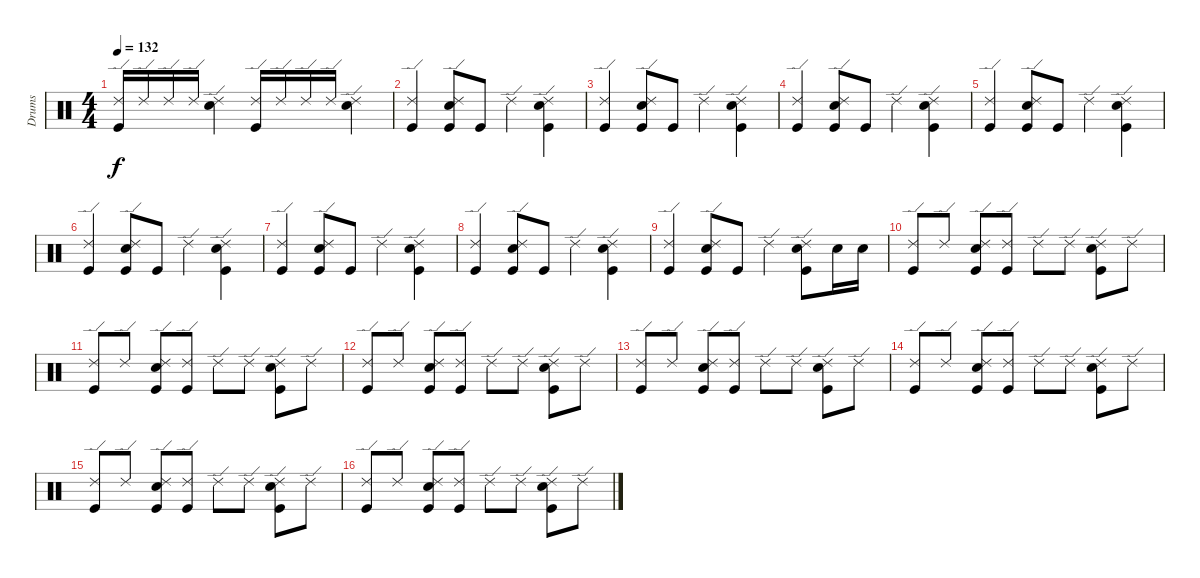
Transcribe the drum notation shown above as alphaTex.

\track ("Drums" "Drums") {instrument percussion}
\staff {score}
\articulation defaults
\ts (4 4)
\tempo 132
\clef neutral
\ks c
("Ride (edge) 2" "Kick (hit)").16{dy f} "Ride (edge) 2".16 "Ride (edge) 2".16 "Ride (edge) 2".16 ("Ride (edge) 2" "Snare (hit) 2").4 ("Ride (edge) 2" "Kick (hit)").16 "Ride (edge) 2".16 "Ride (edge) 2".16 "Ride (edge) 2".16 ("Ride (edge) 2" "Snare (hit) 2").4 |
("Ride (edge) 2" "Kick (hit)").4 ("Ride (edge) 2" "Snare (hit) 2" "Kick (hit)").8 "Kick (hit)".8 "Ride (edge) 2".4 ("Ride (edge) 2" "Snare (hit) 2" "Kick (hit)").4 |
("Ride (edge) 2" "Kick (hit)").4 ("Ride (edge) 2" "Snare (hit) 2" "Kick (hit)").8 "Kick (hit)".8 "Ride (edge) 2".4 ("Ride (edge) 2" "Snare (hit) 2" "Kick (hit)").4 |
("Ride (edge) 2" "Kick (hit)").4 ("Ride (edge) 2" "Snare (hit) 2" "Kick (hit)").8 "Kick (hit)".8 "Ride (edge) 2".4 ("Ride (edge) 2" "Snare (hit) 2" "Kick (hit)").4 |
("Ride (edge) 2" "Kick (hit)").4 ("Ride (edge) 2" "Snare (hit) 2" "Kick (hit)").8 "Kick (hit)".8 "Ride (edge) 2".4 ("Ride (edge) 2" "Snare (hit) 2" "Kick (hit)").4 |
("Ride (edge) 2" "Kick (hit)").4 ("Ride (edge) 2" "Snare (hit) 2" "Kick (hit)").8 "Kick (hit)".8 "Ride (edge) 2".4 ("Ride (edge) 2" "Snare (hit) 2" "Kick (hit)").4 |
("Ride (edge) 2" "Kick (hit)").4 ("Ride (edge) 2" "Snare (hit) 2" "Kick (hit)").8 "Kick (hit)".8 "Ride (edge) 2".4 ("Ride (edge) 2" "Snare (hit) 2" "Kick (hit)").4 |
("Ride (edge) 2" "Kick (hit)").4 ("Ride (edge) 2" "Snare (hit) 2" "Kick (hit)").8 "Kick (hit)".8 "Ride (edge) 2".4 ("Ride (edge) 2" "Snare (hit) 2" "Kick (hit)").4 |
("Ride (edge) 2" "Kick (hit)").4 ("Ride (edge) 2" "Snare (hit) 2" "Kick (hit)").8 "Kick (hit)".8 "Ride (edge) 2".4 ("Ride (edge) 2" "Snare (hit) 2" "Kick (hit)").8 "Snare (hit) 2".16 "Snare (hit) 2".16 |
("Ride (edge) 2" "Kick (hit)").8 "Ride (edge) 2".8 ("Ride (edge) 2" "Snare (hit) 2" "Kick (hit)").8 ("Ride (edge) 2" "Kick (hit)").8 "Ride (edge) 2".8 "Ride (edge) 2".8 ("Ride (edge) 2" "Snare (hit) 2" "Kick (hit)").8 "Ride (edge) 2".8 |
("Ride (edge) 2" "Kick (hit)").8 "Ride (edge) 2".8 ("Ride (edge) 2" "Snare (hit) 2" "Kick (hit)").8 ("Ride (edge) 2" "Kick (hit)").8 "Ride (edge) 2".8 "Ride (edge) 2".8 ("Ride (edge) 2" "Snare (hit) 2" "Kick (hit)").8 "Ride (edge) 2".8 |
("Ride (edge) 2" "Kick (hit)").8 "Ride (edge) 2".8 ("Ride (edge) 2" "Snare (hit) 2" "Kick (hit)").8 ("Ride (edge) 2" "Kick (hit)").8 "Ride (edge) 2".8 "Ride (edge) 2".8 ("Ride (edge) 2" "Snare (hit) 2" "Kick (hit)").8 "Ride (edge) 2".8 |
("Ride (edge) 2" "Kick (hit)").8 "Ride (edge) 2".8 ("Ride (edge) 2" "Snare (hit) 2" "Kick (hit)").8 ("Ride (edge) 2" "Kick (hit)").8 "Ride (edge) 2".8 "Ride (edge) 2".8 ("Ride (edge) 2" "Snare (hit) 2" "Kick (hit)").8 "Ride (edge) 2".8 |
("Ride (edge) 2" "Kick (hit)").8 "Ride (edge) 2".8 ("Ride (edge) 2" "Snare (hit) 2" "Kick (hit)").8 ("Ride (edge) 2" "Kick (hit)").8 "Ride (edge) 2".8 "Ride (edge) 2".8 ("Ride (edge) 2" "Snare (hit) 2" "Kick (hit)").8 "Ride (edge) 2".8 |
("Ride (edge) 2" "Kick (hit)").8 "Ride (edge) 2".8 ("Ride (edge) 2" "Snare (hit) 2" "Kick (hit)").8 ("Ride (edge) 2" "Kick (hit)").8 "Ride (edge) 2".8 "Ride (edge) 2".8 ("Ride (edge) 2" "Snare (hit) 2" "Kick (hit)").8 "Ride (edge) 2".8 |
("Ride (edge) 2" "Kick (hit)").8 "Ride (edge) 2".8 ("Ride (edge) 2" "Snare (hit) 2" "Kick (hit)").8 ("Ride (edge) 2" "Kick (hit)").8 "Ride (edge) 2".8 "Ride (edge) 2".8 ("Ride (edge) 2" "Snare (hit) 2" "Kick (hit)").8 "Ride (edge) 2".8
